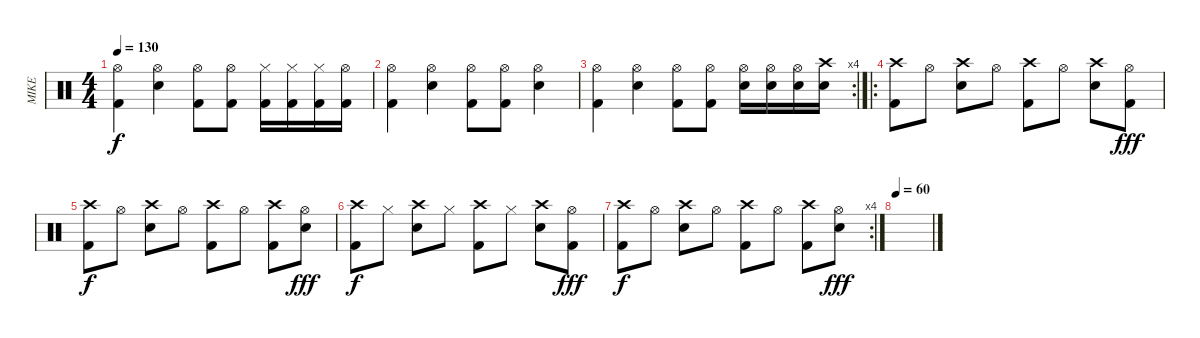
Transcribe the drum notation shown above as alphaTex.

\track ("MIKE" "MIKE") {instrument percussion}
\staff {score}
\articulation defaults
\ts (4 4)
\tempo 130
\clef neutral
\ks c
("Hi-Hat (open)" "Kick (hit) 2").4{dy f} ("Hi-Hat (open)" "Electric Snare (hit)").4 ("Hi-Hat (open)" "Kick (hit) 2").8 ("Hi-Hat (open)" "Kick (hit) 2").8 ("Hi-Hat (closed)" "Kick (hit) 2").16 ("Hi-Hat (closed)" "Kick (hit) 2").16 ("Hi-Hat (closed)" "Kick (hit) 2").16 ("Hi-Hat (open)" "Kick (hit) 2").16 |
("Hi-Hat (open)" "Kick (hit) 2").4 ("Hi-Hat (open)" "Electric Snare (hit)").4 ("Hi-Hat (open)" "Kick (hit) 2").8 ("Hi-Hat (open)" "Kick (hit) 2").8 ("Hi-Hat (open)" "Electric Snare (hit)").4 |
\rc 4
("Hi-Hat (open)" "Kick (hit) 2").4 ("Hi-Hat (open)" "Electric Snare (hit)").4 ("Hi-Hat (open)" "Kick (hit) 2").8 ("Hi-Hat (open)" "Kick (hit) 2").8 ("Hi-Hat (open)" "Electric Snare (hit)").16 ("Hi-Hat (open)" "Electric Snare (hit)").16 ("Hi-Hat (open)" "Electric Snare (hit)").16 ("Crash high (hit)" "Electric Snare (hit)").16 |
\ro
("Crash high (hit)" "Kick (hit) 2").8 "Hi-Hat (open)".8 ("Crash high (hit)" "Snare (hit) 2").8 "Hi-Hat (open)".8 ("Crash high (hit)" "Kick (hit) 2").8 "Hi-Hat (open)".8 ("Crash high (hit)" "Snare (hit) 2").8 ("Hi-Hat (open)" "Kick (hit) 2").8{dy fff} |
("Crash high (hit)" "Kick (hit) 2").8{dy f} "Hi-Hat (open)".8 ("Crash high (hit)" "Snare (hit) 2").8 "Hi-Hat (open)".8 ("Crash high (hit)" "Kick (hit) 2").8 "Hi-Hat (open)".8 ("Crash high (hit)" "Kick (hit) 2").8 ("Hi-Hat (open)" "Snare (hit) 2").8{dy fff} |
("Crash high (hit)" "Kick (hit) 2").8{dy f} "Hi-Hat (closed)".8 ("Crash high (hit)" "Snare (hit) 2").8 "Hi-Hat (closed)".8 ("Crash high (hit)" "Kick (hit) 2").8 "Hi-Hat (closed)".8 ("Crash high (hit)" "Snare (hit) 2").8 ("Hi-Hat (open)" "Kick (hit) 2").8{dy fff} |
\rc 4
("Crash high (hit)" "Kick (hit) 2").8{dy f} "Hi-Hat (open)".8 ("Crash high (hit)" "Snare (hit) 2").8 "Hi-Hat (open)".8 ("Crash high (hit)" "Kick (hit) 2").8 "Hi-Hat (open)".8 ("Crash high (hit)" "Kick (hit) 2").8 ("Hi-Hat (open)" "Snare (hit) 2").8{dy fff} |
\tempo 60
